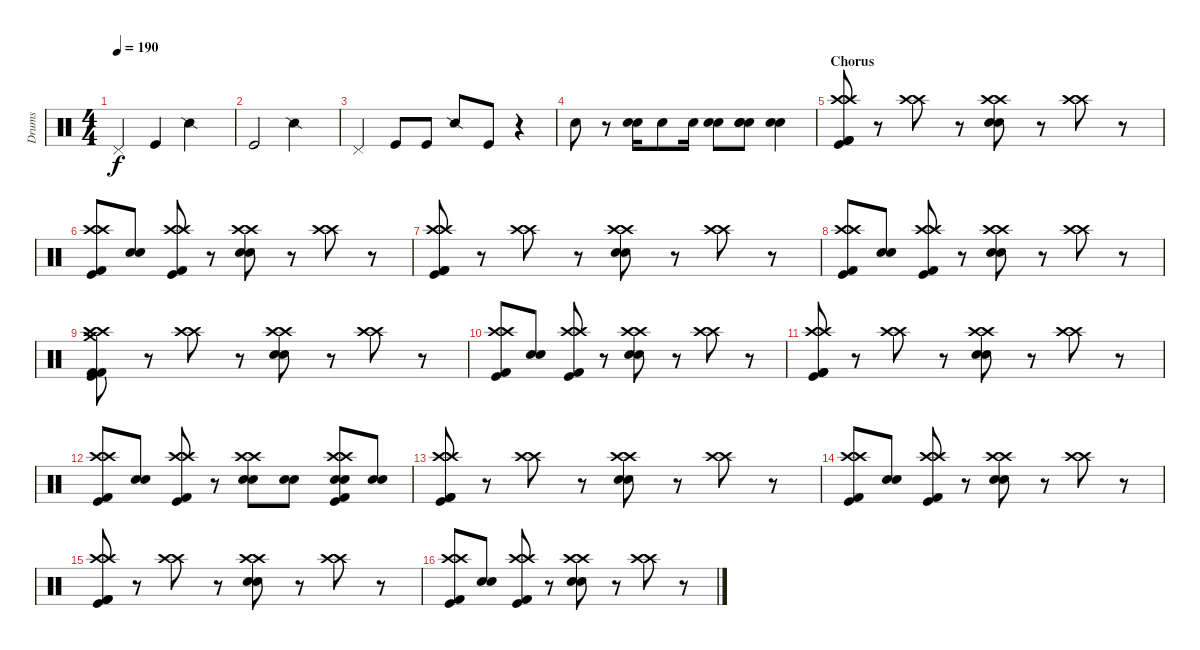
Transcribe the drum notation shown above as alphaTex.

\track ("Drums" "Drums") {instrument percussion}
\staff {score}
\articulation defaults
\ts (4 4)
\tempo 190
\clef neutral
\ks c "Pedal Hi-Hat (hit)".4{dy f} "Kick (hit)".4 "Snare (side stick) 2".2
|
"Kick (hit)".2 "Snare (side stick) 2".2 |
"Pedal Hi-Hat (hit)".4 "Kick (hit)".8 "Kick (hit)".8 "Snare (side stick) 2".8 "Kick (hit)".8 r.4 |
"Electric Snare (hit)".8 r.8 ("Electric Snare (hit)" "Electric Snare (hit)").16 "Electric Snare (hit)".8 "Electric Snare (hit)".16 ("Electric Snare (hit)" "Electric Snare (hit)").8 ("Electric Snare (hit)" "Electric Snare (hit)" "Electric Snare (hit)").8 ("Electric Snare (hit)" "Electric Snare (hit)").4 |
\section ("" "Chorus")
("Crash high (hit)" "Crash high (hit)" "Kick (hit) 2" "Kick (hit) 2" "Kick (hit)").8 r.8 ("Crash high (hit)" "Crash high (hit)").8 r.8 ("Crash high (hit)" "Crash high (hit)" "Electric Snare (hit)" "Electric Snare (hit)").8 r.8 ("Crash high (hit)" "Crash high (hit)").8 r.8 |
("Crash high (hit)" "Crash high (hit)" "Kick (hit) 2" "Kick (hit)").8 ("Electric Snare (hit)" "Electric Snare (hit)").8 ("Crash high (hit)" "Crash high (hit)" "Kick (hit) 2" "Kick (hit)").8 r.8 ("Crash high (hit)" "Crash high (hit)" "Electric Snare (hit)" "Electric Snare (hit)").8 r.8 ("Crash high (hit)" "Crash high (hit)").8 r.8 |
("Crash high (hit)" "Crash high (hit)" "Kick (hit) 2" "Kick (hit) 2" "Kick (hit)").8 r.8 ("Crash high (hit)" "Crash high (hit)").8 r.8 ("Crash high (hit)" "Crash high (hit)" "Electric Snare (hit)" "Electric Snare (hit)").8 r.8 ("Crash high (hit)" "Crash high (hit)").8 r.8 |
("Crash high (hit)" "Crash high (hit)" "Kick (hit) 2" "Kick (hit)").8 ("Electric Snare (hit)" "Electric Snare (hit)").8 ("Crash high (hit)" "Crash high (hit)" "Kick (hit) 2" "Kick (hit)").8 r.8 ("Crash high (hit)" "Crash high (hit)" "Electric Snare (hit)" "Electric Snare (hit)").8 r.8 ("Crash high (hit)" "Crash high (hit)").8 r.8 |
("Crash high (hit)" "Crash high (hit)" "Crash medium (hit)" "Kick (hit) 2" "Kick (hit) 2" "Kick (hit)").8 r.8 ("Crash high (hit)" "Crash high (hit)").8 r.8 ("Crash high (hit)" "Crash high (hit)" "Electric Snare (hit)" "Electric Snare (hit)").8 r.8 ("Crash high (hit)" "Crash high (hit)").8 r.8 |
("Crash high (hit)" "Crash high (hit)" "Kick (hit) 2" "Kick (hit)").8 ("Electric Snare (hit)" "Electric Snare (hit)").8 ("Crash high (hit)" "Crash high (hit)" "Kick (hit) 2" "Kick (hit)").8 r.8 ("Crash high (hit)" "Crash high (hit)" "Electric Snare (hit)" "Electric Snare (hit)").8 r.8 ("Crash high (hit)" "Crash high (hit)").8 r.8 |
("Crash high (hit)" "Crash high (hit)" "Kick (hit) 2" "Kick (hit) 2" "Kick (hit)").8 r.8 ("Crash high (hit)" "Crash high (hit)").8 r.8 ("Crash high (hit)" "Crash high (hit)" "Electric Snare (hit)" "Electric Snare (hit)").8 r.8 ("Crash high (hit)" "Crash high (hit)").8 r.8 |
("Crash high (hit)" "Crash high (hit)" "Kick (hit) 2" "Kick (hit)").8 ("Electric Snare (hit)" "Electric Snare (hit)").8 ("Crash high (hit)" "Crash high (hit)" "Kick (hit) 2" "Kick (hit)").8 r.8 ("Crash high (hit)" "Crash high (hit)" "Electric Snare (hit)" "Electric Snare (hit)").8 ("Electric Snare (hit)" "Electric Snare (hit)").8 ("Crash high (hit)" "Crash high (hit)" "Electric Snare (hit)" "Electric Snare (hit)" "Kick (hit) 2" "Kick (hit)").8 ("Electric Snare (hit)" "Electric Snare (hit)").8 |
("Crash high (hit)" "Crash high (hit)" "Kick (hit) 2" "Kick (hit) 2" "Kick (hit)").8 r.8 ("Crash high (hit)" "Crash high (hit)").8 r.8 ("Crash high (hit)" "Crash high (hit)" "Electric Snare (hit)" "Electric Snare (hit)").8 r.8 ("Crash high (hit)" "Crash high (hit)").8 r.8 |
("Crash high (hit)" "Crash high (hit)" "Kick (hit) 2" "Kick (hit)").8 ("Electric Snare (hit)" "Electric Snare (hit)").8 ("Crash high (hit)" "Crash high (hit)" "Kick (hit) 2" "Kick (hit)").8 r.8 ("Crash high (hit)" "Crash high (hit)" "Electric Snare (hit)" "Electric Snare (hit)").8 r.8 ("Crash high (hit)" "Crash high (hit)").8 r.8 |
("Crash high (hit)" "Crash high (hit)" "Kick (hit) 2" "Kick (hit) 2" "Kick (hit)").8 r.8 ("Crash high (hit)" "Crash high (hit)").8 r.8 ("Crash high (hit)" "Crash high (hit)" "Electric Snare (hit)" "Electric Snare (hit)").8 r.8 ("Crash high (hit)" "Crash high (hit)").8 r.8 |
("Crash high (hit)" "Crash high (hit)" "Kick (hit) 2" "Kick (hit)").8 ("Electric Snare (hit)" "Electric Snare (hit)").8 ("Crash high (hit)" "Crash high (hit)" "Kick (hit) 2" "Kick (hit)").8 r.8 ("Crash high (hit)" "Crash high (hit)" "Electric Snare (hit)" "Electric Snare (hit)").8 r.8 ("Crash high (hit)" "Crash high (hit)").8 r.8
